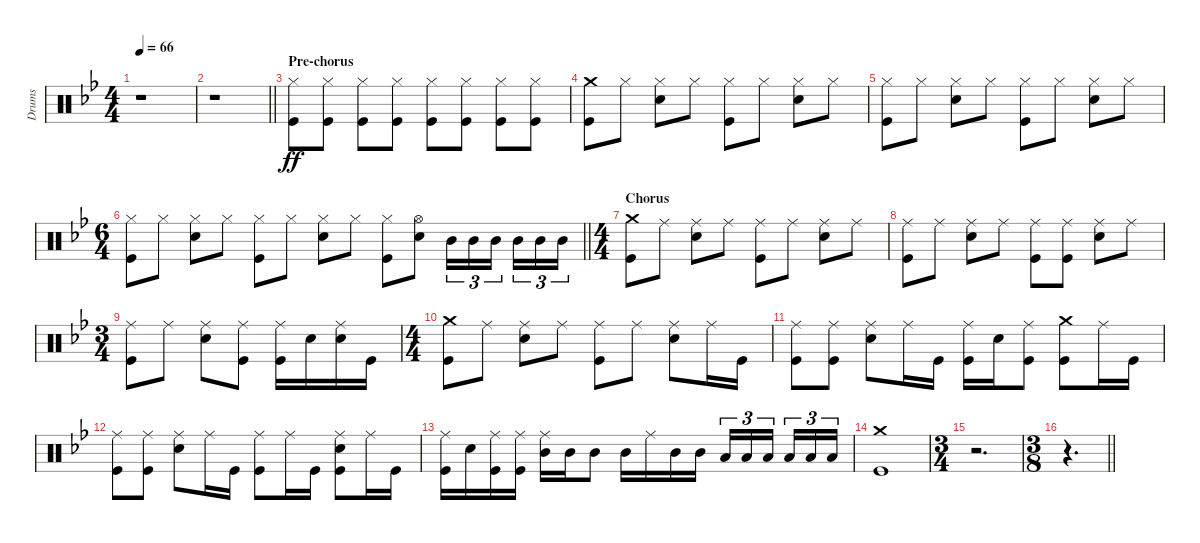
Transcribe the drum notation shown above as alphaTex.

\track ("Drums" "Drums") {instrument percussion}
\staff {score}
\articulation defaults
\ts (4 4)
\tempo 66
\clef neutral
\ks bb
r.1{dy ff} |
\barLineRight lightlight
r.1 |
\section ("" "Pre-chorus")
("Kick (hit)" "Hi-Hat (closed)").8 ("Kick (hit)" "Hi-Hat (closed)").8 ("Kick (hit)" "Hi-Hat (closed)").8 ("Kick (hit)" "Hi-Hat (closed)").8 ("Kick (hit)" "Hi-Hat (closed)").8 ("Kick (hit)" "Hi-Hat (closed)").8 ("Kick (hit)" "Hi-Hat (closed)").8 ("Kick (hit)" "Hi-Hat (closed)").8 |
("Kick (hit)" "Crash medium (hit)").8 "Hi-Hat (closed)".8 ("Snare (hit) 2" "Hi-Hat (closed)").8 "Hi-Hat (closed)".8 ("Kick (hit)" "Hi-Hat (closed)").8 "Hi-Hat (closed)".8 ("Snare (hit) 2" "Hi-Hat (closed)").8 "Hi-Hat (closed)".8 |
("Kick (hit)" "Hi-Hat (closed)").8 "Hi-Hat (closed)".8 ("Snare (hit) 2" "Hi-Hat (closed)").8 "Hi-Hat (closed)".8 ("Kick (hit)" "Hi-Hat (closed)").8 "Hi-Hat (closed)".8 ("Snare (hit) 2" "Hi-Hat (closed)").8 "Hi-Hat (closed)".8 |
\ts (6 4)
\barLineRight lightlight
("Kick (hit)" "Hi-Hat (closed)").8 "Hi-Hat (closed)".8 ("Snare (hit) 2" "Hi-Hat (closed)").8 "Hi-Hat (closed)".8 ("Kick (hit)" "Hi-Hat (closed)").8 "Hi-Hat (closed)".8 ("Snare (hit) 2" "Hi-Hat (closed)").8 "Hi-Hat (closed)".8 ("Kick (hit)" "Hi-Hat (closed)").8 ("Snare (hit) 2" "Hi-Hat (open)").8 "Mid Tom (hit)".16{tu (3 2)} "Mid Tom (hit)".16{tu (3 2)} "Mid Tom (hit)".16{tu (3 2)} "Mid Tom (hit)".16{tu (3 2)} "Mid Tom (hit)".16{tu (3 2)} "Mid Tom (hit)".16{tu (3 2)} |
\ts (4 4)
\section ("" "Chorus")
("Kick (hit)" "Crash medium (hit)").8 "Ride (middle)".8 ("Snare (hit) 2" "Ride (middle)").8 "Ride (middle)".8 ("Kick (hit)" "Ride (middle)").8 "Ride (middle)".8 ("Snare (hit) 2" "Ride (middle)").8 "Ride (middle)".8 |
("Kick (hit)" "Ride (middle)").8 "Ride (middle)".8 ("Snare (hit) 2" "Ride (middle)").8 "Ride (middle)".8 ("Kick (hit)" "Ride (middle)").8 ("Kick (hit)" "Ride (middle)").8 ("Snare (hit) 2" "Ride (middle)").8 "Ride (middle)".8 |
\ts (3 4)
("Kick (hit)" "Ride (middle)").8 "Ride (middle)".8 ("Snare (hit) 2" "Ride (middle)").8 ("Kick (hit)" "Ride (middle)").8 ("Kick (hit)" "Ride (middle)").16 "Snare (hit) 2".16 ("Snare (hit) 2" "Ride (middle)").16 "Kick (hit)".16 |
\ts (4 4)
("Kick (hit)" "Crash medium (hit)").8 "Ride (middle)".8 ("Snare (hit) 2" "Ride (middle)").8 "Ride (middle)".8 ("Kick (hit)" "Ride (middle)").8 "Ride (middle)".8 ("Snare (hit) 2" "Ride (middle)").8 "Ride (middle)".16 "Kick (hit)".16 |
("Kick (hit)" "Ride (middle)").8 ("Kick (hit)" "Ride (middle)").8 ("Snare (hit) 2" "Ride (middle)").8 "Ride (middle)".16 "Kick (hit)".16 ("Kick (hit)" "Ride (middle)").16 "Snare (hit) 2".16 ("Kick (hit)" "Ride (middle)").8 ("Kick (hit)" "Crash medium (hit)").8 "Ride (middle)".16 "Kick (hit)".16 |
("Kick (hit)" "Ride (middle)").8 ("Kick (hit)" "Ride (middle)").8 ("Snare (hit) 2" "Ride (middle)").8 "Ride (middle)".16 "Kick (hit)".16 ("Kick (hit)" "Ride (middle)").8 "Ride (middle)".16 "Kick (hit)".16 ("Kick (hit)" "Snare (hit) 2" "Ride (middle)").8 "Ride (middle)".16 "Kick (hit)".16 |
("Kick (hit)" "Ride (middle)").16 "Snare (hit) 2".16 ("Kick (hit)" "Ride (middle)").16 ("Kick (hit)" "Ride (middle)").16 ("Mid Tom (hit)" "Ride (middle)").16 "Mid Tom (hit)".16 "Mid Tom (hit)".8 "Mid Tom (hit)".16 "Ride (middle)".16 "Mid Tom (hit)".16 "Mid Tom (hit)".16 "Low Tom (hit)".16{tu (3 2)} "Low Tom (hit)".16{tu (3 2)} "Low Tom (hit)".16{tu (3 2)} "Low Tom (hit)".16{tu (3 2)} "Low Tom (hit)".16{tu (3 2)} "Low Tom (hit)".16{tu (3 2)} |
("Kick (hit)" "Crash medium (hit)").1 |
\ts (3 4)
r.2{d} |
\ts (3 8)
\barLineRight lightlight
r.4{d}
